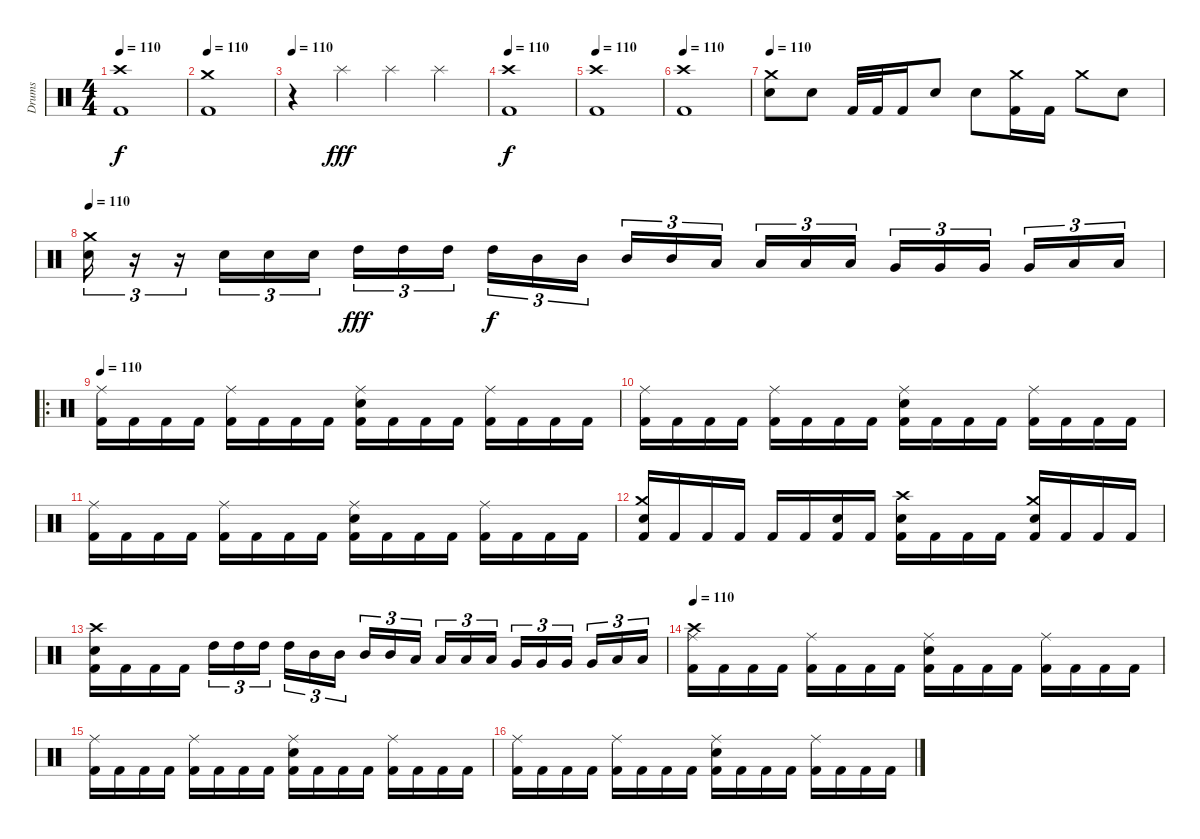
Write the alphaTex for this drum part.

\track ("Drums" "Drums") {instrument percussion}
\staff {score}
\articulation defaults
\ts (4 4)
\tempo 110
\clef neutral
\ks c
("Crash high (hit)" "Kick (hit) 2").1{dy f} |
\tempo 160
\tempo 110
("Crash medium (hit)" "Kick (hit) 2").1 |
\tempo 160
\tempo 110
r.4 "Splash (hit)".4{dy fff} "Splash (hit)".4 "Splash (hit)".4 |
\tempo 110
("Crash high (hit)" "Kick (hit) 2").1{dy f} |
\tempo 110
("Crash high (hit)" "Kick (hit) 2").1 |
\tempo 110
("Crash high (hit)" "Kick (hit) 2").1 |
\tempo 160
\tempo 110
("Crash medium (hit)" "Electric Snare (hit)").8 "Electric Snare (hit)".8 "Kick (hit) 2".32 "Kick (hit) 2".32 "Kick (hit) 2".16 "Electric Snare (hit)".8 "Electric Snare (hit)".8 ("Crash medium (hit)" "Kick (hit) 2").16 "Kick (hit) 2".16 "Crash medium (hit)".8 "Electric Snare (hit)".8 |
\tempo 160
\tempo 110
("Crash medium (hit)" "Electric Snare (hit)").16{tu (3 2)} r.16{tu (3 2)} r.16{tu (3 2)} "Electric Snare (hit)".16{tu (3 2)} "Electric Snare (hit)".16{tu (3 2)} "Electric Snare (hit)".16{tu (3 2)} "High Tom (hit)".16{tu (3 2) dy fff} "High Tom (hit)".16{tu (3 2)} "High Tom (hit)".16{tu (3 2)} "High Tom (hit)".16{tu (3 2) dy f} "Mid Tom (hit)".16{tu (3 2)} "Mid Tom (hit)".16{tu (3 2)} "Mid Tom (hit)".16{tu (3 2)} "Mid Tom (hit)".16{tu (3 2)} "Low Tom (hit)".16{tu (3 2)} "Low Tom (hit)".16{tu (3 2)} "Low Tom (hit)".16{tu (3 2)} "Low Tom (hit)".16{tu (3 2)} "Very Low Tom (hit)".16{tu (3 2)} "Very Low Tom (hit)".16{tu (3 2)} "Very Low Tom (hit)".16{tu (3 2)} "Very Low Tom (hit)".16{tu (3 2)} "Low Floor Tom (hit)".16{tu (3 2)} "Low Floor Tom (hit)".16{tu (3 2)} |
\ro
\tempo 110
("Ride (middle)" "Kick (hit) 2").16 "Kick (hit) 2".16 "Kick (hit) 2".16 "Kick (hit) 2".16 ("Ride (middle)" "Kick (hit) 2").16 "Kick (hit) 2".16 "Kick (hit) 2".16 "Kick (hit) 2".16 ("Ride (middle)" "Electric Snare (hit)" "Kick (hit) 2").16 "Kick (hit) 2".16 "Kick (hit) 2".16 "Kick (hit) 2".16 ("Ride (middle)" "Kick (hit) 2").16 "Kick (hit) 2".16 "Kick (hit) 2".16 "Kick (hit) 2".16 |
("Ride (middle)" "Kick (hit) 2").16 "Kick (hit) 2".16 "Kick (hit) 2".16 "Kick (hit) 2".16 ("Ride (middle)" "Kick (hit) 2").16 "Kick (hit) 2".16 "Kick (hit) 2".16 "Kick (hit) 2".16 ("Ride (middle)" "Electric Snare (hit)" "Kick (hit) 2").16 "Kick (hit) 2".16 "Kick (hit) 2".16 "Kick (hit) 2".16 ("Ride (middle)" "Kick (hit) 2").16 "Kick (hit) 2".16 "Kick (hit) 2".16 "Kick (hit) 2".16 |
("Ride (middle)" "Kick (hit) 2").16 "Kick (hit) 2".16 "Kick (hit) 2".16 "Kick (hit) 2".16 ("Ride (middle)" "Kick (hit) 2").16 "Kick (hit) 2".16 "Kick (hit) 2".16 "Kick (hit) 2".16 ("Ride (middle)" "Electric Snare (hit)" "Kick (hit) 2").16 "Kick (hit) 2".16 "Kick (hit) 2".16 "Kick (hit) 2".16 ("Ride (middle)" "Kick (hit) 2").16 "Kick (hit) 2".16 "Kick (hit) 2".16 "Kick (hit) 2".16 |
("Crash medium (hit)" "Electric Snare (hit)" "Kick (hit) 2").16 "Kick (hit) 2".16 "Kick (hit) 2".16 "Kick (hit) 2".16 "Kick (hit) 2".16 "Kick (hit) 2".16 ("Electric Snare (hit)" "Kick (hit) 2").16 "Kick (hit) 2".16 ("Crash high (hit)" "Electric Snare (hit)" "Kick (hit) 2").16 "Kick (hit) 2".16 "Kick (hit) 2".16 "Kick (hit) 2".16 ("Crash medium (hit)" "Electric Snare (hit)" "Kick (hit) 2").16 "Kick (hit) 2".16 "Kick (hit) 2".16 "Kick (hit) 2".16 |
("Crash high (hit)" "Electric Snare (hit)" "Kick (hit) 2").16 "Kick (hit) 2".16 "Kick (hit) 2".16 "Kick (hit) 2".16 "High Tom (hit)".16{tu (3 2)} "High Tom (hit)".16{tu (3 2)} "High Tom (hit)".16{tu (3 2)} "High Tom (hit)".16{tu (3 2)} "Mid Tom (hit)".16{tu (3 2)} "Mid Tom (hit)".16{tu (3 2)} "Mid Tom (hit)".16{tu (3 2)} "Mid Tom (hit)".16{tu (3 2)} "Low Tom (hit)".16{tu (3 2)} "Low Tom (hit)".16{tu (3 2)} "Low Tom (hit)".16{tu (3 2)} "Low Tom (hit)".16{tu (3 2)} "Very Low Tom (hit)".16{tu (3 2)} "Very Low Tom (hit)".16{tu (3 2)} "Very Low Tom (hit)".16{tu (3 2)} "Very Low Tom (hit)".16{tu (3 2)} "Low Floor Tom (hit)".16{tu (3 2)} "Low Floor Tom (hit)".16{tu (3 2)} |
\tempo 110
("Crash high (hit)" "Ride (middle)" "Kick (hit) 2").16 "Kick (hit) 2".16 "Kick (hit) 2".16 "Kick (hit) 2".16 ("Ride (middle)" "Kick (hit) 2").16 "Kick (hit) 2".16 "Kick (hit) 2".16 "Kick (hit) 2".16 ("Ride (middle)" "Electric Snare (hit)" "Kick (hit) 2").16 "Kick (hit) 2".16 "Kick (hit) 2".16 "Kick (hit) 2".16 ("Ride (middle)" "Kick (hit) 2").16 "Kick (hit) 2".16 "Kick (hit) 2".16 "Kick (hit) 2".16 |
("Ride (middle)" "Kick (hit) 2").16 "Kick (hit) 2".16 "Kick (hit) 2".16 "Kick (hit) 2".16 ("Ride (middle)" "Kick (hit) 2").16 "Kick (hit) 2".16 "Kick (hit) 2".16 "Kick (hit) 2".16 ("Ride (middle)" "Electric Snare (hit)" "Kick (hit) 2").16 "Kick (hit) 2".16 "Kick (hit) 2".16 "Kick (hit) 2".16 ("Ride (middle)" "Kick (hit) 2").16 "Kick (hit) 2".16 "Kick (hit) 2".16 "Kick (hit) 2".16 |
("Ride (middle)" "Kick (hit) 2").16 "Kick (hit) 2".16 "Kick (hit) 2".16 "Kick (hit) 2".16 ("Ride (middle)" "Kick (hit) 2").16 "Kick (hit) 2".16 "Kick (hit) 2".16 "Kick (hit) 2".16 ("Ride (middle)" "Electric Snare (hit)" "Kick (hit) 2").16 "Kick (hit) 2".16 "Kick (hit) 2".16 "Kick (hit) 2".16 ("Ride (middle)" "Kick (hit) 2").16 "Kick (hit) 2".16 "Kick (hit) 2".16 "Kick (hit) 2".16
